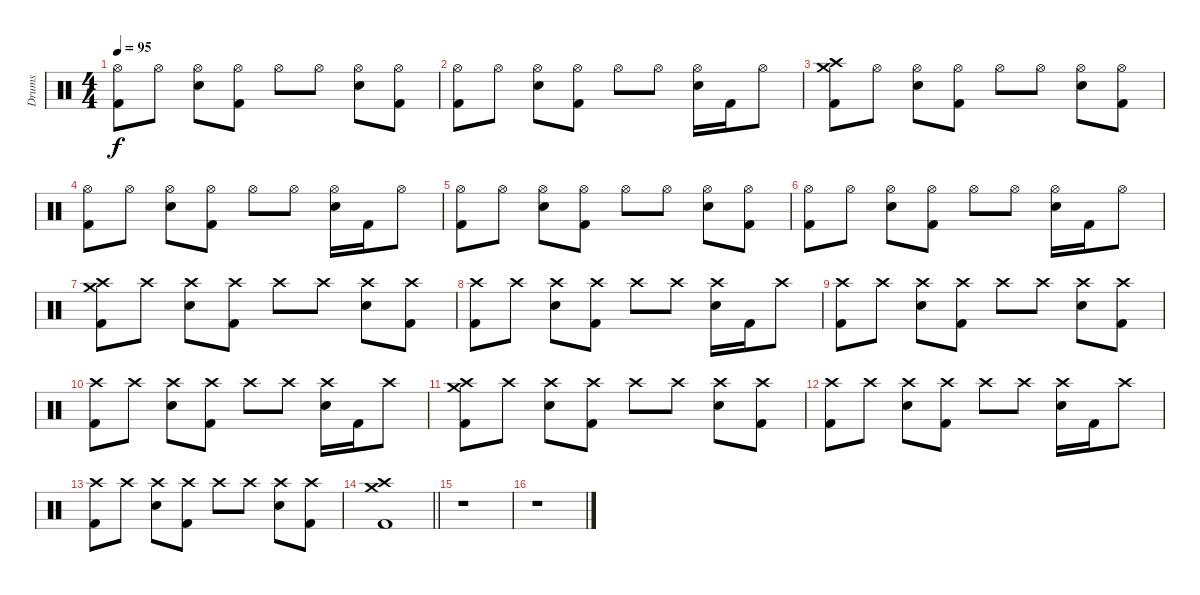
\track ("Drums" "Drums") {instrument percussion}
\staff {score}
\articulation defaults
\ts (4 4)
\tempo 95
\clef neutral
\ks c
("Hi-Hat (open)" "Kick (hit) 2").8{dy f} "Hi-Hat (open)".8 ("Hi-Hat (open)" "Snare (hit) 2").8 ("Hi-Hat (open)" "Kick (hit) 2").8 "Hi-Hat (open)".8 "Hi-Hat (open)".8 ("Hi-Hat (open)" "Snare (hit) 2").8 ("Hi-Hat (open)" "Kick (hit) 2").8 |
("Hi-Hat (open)" "Kick (hit) 2").8 "Hi-Hat (open)".8 ("Hi-Hat (open)" "Snare (hit) 2").8 ("Hi-Hat (open)" "Kick (hit) 2").8 "Hi-Hat (open)".8 "Hi-Hat (open)".8 ("Hi-Hat (open)" "Snare (hit) 2").16 "Kick (hit) 2".16 "Hi-Hat (open)".8 |
("Crash high (hit)" "Crash medium (hit)" "Kick (hit) 2").8 "Hi-Hat (open)".8 ("Hi-Hat (open)" "Snare (hit) 2").8 ("Hi-Hat (open)" "Kick (hit) 2").8 "Hi-Hat (open)".8 "Hi-Hat (open)".8 ("Hi-Hat (open)" "Snare (hit) 2").8 ("Hi-Hat (open)" "Kick (hit) 2").8 |
("Hi-Hat (open)" "Kick (hit) 2").8 "Hi-Hat (open)".8 ("Hi-Hat (open)" "Snare (hit) 2").8 ("Hi-Hat (open)" "Kick (hit) 2").8 "Hi-Hat (open)".8 "Hi-Hat (open)".8 ("Hi-Hat (open)" "Snare (hit) 2").16 "Kick (hit) 2".16 "Hi-Hat (open)".8 |
("Hi-Hat (open)" "Kick (hit) 2").8 "Hi-Hat (open)".8 ("Hi-Hat (open)" "Snare (hit) 2").8 ("Hi-Hat (open)" "Kick (hit) 2").8 "Hi-Hat (open)".8 "Hi-Hat (open)".8 ("Hi-Hat (open)" "Snare (hit) 2").8 ("Hi-Hat (open)" "Kick (hit) 2").8 |
("Hi-Hat (open)" "Kick (hit) 2").8 "Hi-Hat (open)".8 ("Hi-Hat (open)" "Snare (hit) 2").8 ("Hi-Hat (open)" "Kick (hit) 2").8 "Hi-Hat (open)".8 "Hi-Hat (open)".8 ("Hi-Hat (open)" "Snare (hit) 2").16 "Kick (hit) 2".16 "Hi-Hat (open)".8 |
("Crash high (hit)" "Crash medium (hit)" "Kick (hit) 2").8 "Crash high (hit)".8 ("Crash high (hit)" "Snare (hit) 2").8 ("Crash high (hit)" "Kick (hit) 2").8 "Crash high (hit)".8 "Crash high (hit)".8 ("Crash high (hit)" "Snare (hit) 2").8 ("Crash high (hit)" "Kick (hit) 2").8 |
("Crash high (hit)" "Kick (hit) 2").8 "Crash high (hit)".8 ("Crash high (hit)" "Snare (hit) 2").8 ("Crash high (hit)" "Kick (hit) 2").8 "Crash high (hit)".8 "Crash high (hit)".8 ("Crash high (hit)" "Snare (hit) 2").16 "Kick (hit) 2".16 "Crash high (hit)".8 |
("Crash high (hit)" "Kick (hit) 2").8 "Crash high (hit)".8 ("Crash high (hit)" "Snare (hit) 2").8 ("Crash high (hit)" "Kick (hit) 2").8 "Crash high (hit)".8 "Crash high (hit)".8 ("Crash high (hit)" "Snare (hit) 2").8 ("Crash high (hit)" "Kick (hit) 2").8 |
("Crash high (hit)" "Kick (hit) 2").8 "Crash high (hit)".8 ("Crash high (hit)" "Snare (hit) 2").8 ("Crash high (hit)" "Kick (hit) 2").8 "Crash high (hit)".8 "Crash high (hit)".8 ("Crash high (hit)" "Snare (hit) 2").16 "Kick (hit) 2".16 "Crash high (hit)".8 |
("Crash high (hit)" "Crash medium (hit)" "Kick (hit) 2").8 "Crash high (hit)".8 ("Crash high (hit)" "Snare (hit) 2").8 ("Crash high (hit)" "Kick (hit) 2").8 "Crash high (hit)".8 "Crash high (hit)".8 ("Crash high (hit)" "Snare (hit) 2").8 ("Crash high (hit)" "Kick (hit) 2").8 |
("Crash high (hit)" "Kick (hit) 2").8 "Crash high (hit)".8 ("Crash high (hit)" "Snare (hit) 2").8 ("Crash high (hit)" "Kick (hit) 2").8 "Crash high (hit)".8 "Crash high (hit)".8 ("Crash high (hit)" "Snare (hit) 2").16 "Kick (hit) 2".16 "Crash high (hit)".8 |
("Crash high (hit)" "Kick (hit) 2").8 "Crash high (hit)".8 ("Crash high (hit)" "Snare (hit) 2").8 ("Crash high (hit)" "Kick (hit) 2").8 "Crash high (hit)".8 "Crash high (hit)".8 ("Crash high (hit)" "Snare (hit) 2").8 ("Crash high (hit)" "Kick (hit) 2").8 |
\barLineRight lightlight
("Crash high (hit)" "Crash medium (hit)" "Kick (hit) 2").1 |
r.1 |
r.1
